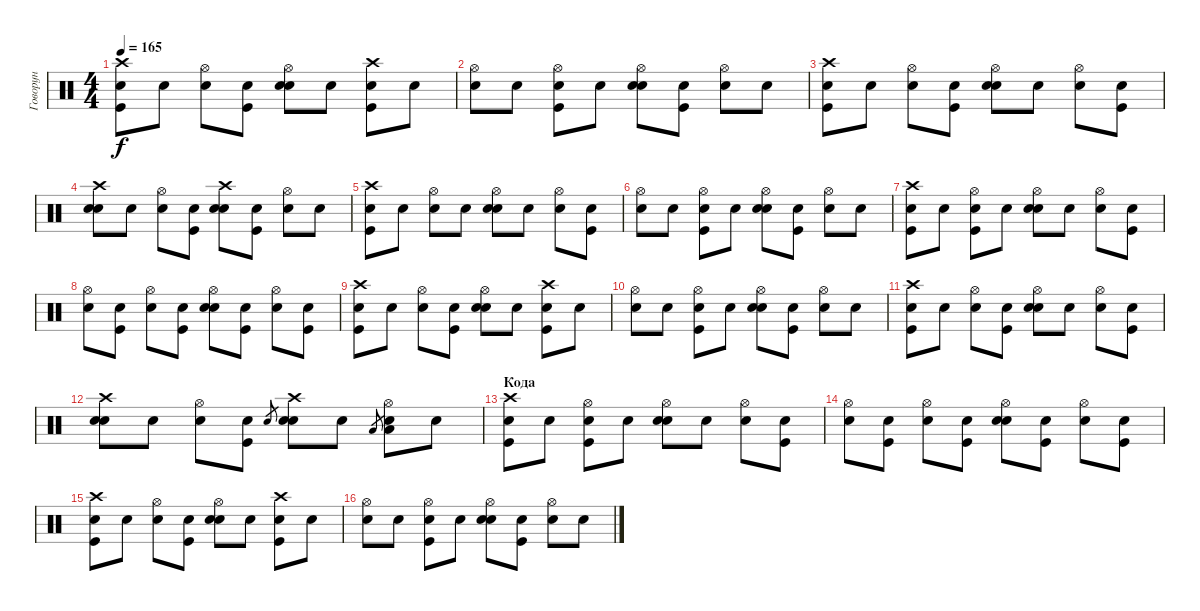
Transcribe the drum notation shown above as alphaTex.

\track ("Говорун" "Говорун") {instrument percussion}
\staff {score}
\articulation defaults
\ts (4 4)
\tempo 165
\clef neutral
\ks c
("Crash high (hit)" "Kick (hit)" "Snare (hit)"{x}).8{dy f} "Snare (hit)"{x}.8 ("Hi-Hat (open)" "Snare (hit)"{x}).8 ("Kick (hit)" "Snare (hit)"{x}).8 ("Hi-Hat (open)" "Snare (hit) 2" "Snare (hit)"{x}).8 "Snare (hit)"{x}.8 ("Crash high (hit)" "Kick (hit)" "Snare (hit)"{x}).8 "Snare (hit)"{x}.8 |
("Hi-Hat (open)" "Snare (hit)"{x}).8 "Snare (hit)"{x}.8 ("Hi-Hat (open)" "Kick (hit)" "Snare (hit)"{x}).8 "Snare (hit)"{x}.8 ("Hi-Hat (open)" "Snare (hit) 2" "Snare (hit)"{x}).8 ("Kick (hit)" "Snare (hit)"{x}).8 ("Hi-Hat (open)" "Snare (hit)"{x}).8 "Snare (hit)"{x}.8 |
("Crash high (hit)" "Kick (hit)" "Snare (hit)"{x}).8 "Snare (hit)"{x}.8 ("Hi-Hat (open)" "Snare (hit)"{x}).8 ("Kick (hit)" "Snare (hit)"{x}).8 ("Hi-Hat (open)" "Snare (hit) 2" "Snare (hit)"{x}).8 "Snare (hit)"{x}.8 ("Hi-Hat (open)" "Snare (hit)"{x}).8 ("Kick (hit)" "Snare (hit)"{x}).8 |
("Crash high (hit)" "Snare (hit) 2" "Snare (hit)"{x}).8 "Snare (hit)"{x}.8 ("Hi-Hat (open)" "Snare (hit)"{x}).8 ("Kick (hit)" "Snare (hit)"{x}).8 ("Crash high (hit)" "Snare (hit) 2" "Snare (hit)"{x}).8 ("Kick (hit)" "Snare (hit)"{x}).8 ("Hi-Hat (open)" "Snare (hit)"{x}).8 "Snare (hit)"{x}.8 |
("Crash high (hit)" "Kick (hit)" "Snare (hit)"{x}).8 "Snare (hit)"{x}.8 ("Hi-Hat (open)" "Snare (hit)"{x}).8 "Snare (hit)"{x}.8 ("Hi-Hat (open)" "Snare (hit) 2" "Snare (hit)"{x}).8 "Snare (hit)"{x}.8 ("Hi-Hat (open)" "Snare (hit)"{x}).8 ("Kick (hit)" "Snare (hit)"{x}).8 |
("Hi-Hat (open)" "Snare (hit)"{x}).8 "Snare (hit)"{x}.8 ("Hi-Hat (open)" "Kick (hit)" "Snare (hit)"{x}).8 "Snare (hit)"{x}.8 ("Hi-Hat (open)" "Snare (hit) 2" "Snare (hit)"{x}).8 ("Kick (hit)" "Snare (hit)"{x}).8 ("Hi-Hat (open)" "Snare (hit)"{x}).8 "Snare (hit)"{x}.8 |
("Crash high (hit)" "Kick (hit)" "Snare (hit)"{x}).8 "Snare (hit)"{x}.8 ("Hi-Hat (open)" "Kick (hit)" "Snare (hit)"{x}).8 "Snare (hit)"{x}.8 ("Hi-Hat (open)" "Snare (hit) 2" "Snare (hit)"{x}).8 "Snare (hit)"{x}.8 ("Hi-Hat (open)" "Snare (hit)"{x}).8 ("Kick (hit)" "Snare (hit)"{x}).8 |
("Hi-Hat (open)" "Snare (hit)"{x}).8 ("Kick (hit)" "Snare (hit)"{x}).8 ("Hi-Hat (open)" "Snare (hit)"{x}).8 ("Kick (hit)" "Snare (hit)"{x}).8 ("Hi-Hat (open)" "Snare (hit) 2" "Snare (hit)"{x}).8 ("Kick (hit)" "Snare (hit)"{x}).8 ("Hi-Hat (open)" "Snare (hit)"{x}).8 ("Kick (hit)" "Snare (hit)"{x}).8 |
("Crash high (hit)" "Kick (hit)" "Snare (hit)"{x}).8 "Snare (hit)"{x}.8 ("Hi-Hat (open)" "Snare (hit)"{x}).8 ("Kick (hit)" "Snare (hit)"{x}).8 ("Hi-Hat (open)" "Snare (hit) 2" "Snare (hit)"{x}).8 "Snare (hit)"{x}.8 ("Crash high (hit)" "Kick (hit)" "Snare (hit)"{x}).8 "Snare (hit)"{x}.8 |
("Hi-Hat (open)" "Snare (hit)"{x}).8 "Snare (hit)"{x}.8 ("Hi-Hat (open)" "Kick (hit)" "Snare (hit)"{x}).8 "Snare (hit)"{x}.8 ("Hi-Hat (open)" "Snare (hit) 2" "Snare (hit)"{x}).8 ("Kick (hit)" "Snare (hit)"{x}).8 ("Hi-Hat (open)" "Snare (hit)"{x}).8 "Snare (hit)"{x}.8 |
("Crash high (hit)" "Kick (hit)" "Snare (hit)"{x}).8 "Snare (hit)"{x}.8 ("Hi-Hat (open)" "Snare (hit)"{x}).8 ("Kick (hit)" "Snare (hit)"{x}).8 ("Hi-Hat (open)" "Snare (hit) 2" "Snare (hit)"{x}).8 "Snare (hit)"{x}.8 ("Hi-Hat (open)" "Snare (hit)"{x}).8 ("Kick (hit)" "Snare (hit)"{x}).8 |
("Crash high (hit)" "Snare (hit) 2" "Snare (hit)"{x}).8 "Snare (hit)"{x}.8 ("Hi-Hat (open)" "Snare (hit)"{x}).8 ("Kick (hit)" "Snare (hit)"{x}).8 "Snare (hit) 2".8{gr} ("Crash high (hit)" "Snare (hit) 2" "Snare (hit)"{x}).8 "Snare (hit)"{x}.8 "Low Tom (hit)".8{gr} ("Hi-Hat (open)" "Low Tom (hit)" "Snare (hit)"{x}).8 "Snare (hit)"{x}.8 |
\section ("" "Кода")
("Crash high (hit)" "Kick (hit)" "Snare (hit)"{x}).8 "Snare (hit)"{x}.8 ("Hi-Hat (open)" "Kick (hit)" "Snare (hit)"{x}).8 "Snare (hit)"{x}.8 ("Hi-Hat (open)" "Snare (hit) 2" "Snare (hit)"{x}).8 "Snare (hit)"{x}.8 ("Hi-Hat (open)" "Snare (hit)"{x}).8 ("Kick (hit)" "Snare (hit)"{x}).8 |
("Hi-Hat (open)" "Snare (hit)"{x}).8 ("Kick (hit)" "Snare (hit)"{x}).8 ("Hi-Hat (open)" "Snare (hit)"{x}).8 ("Kick (hit)" "Snare (hit)"{x}).8 ("Hi-Hat (open)" "Snare (hit) 2" "Snare (hit)"{x}).8 ("Kick (hit)" "Snare (hit)"{x}).8 ("Hi-Hat (open)" "Snare (hit)"{x}).8 ("Kick (hit)" "Snare (hit)"{x}).8 |
("Crash high (hit)" "Kick (hit)" "Snare (hit)"{x}).8 "Snare (hit)"{x}.8 ("Hi-Hat (open)" "Snare (hit)"{x}).8 ("Kick (hit)" "Snare (hit)"{x}).8 ("Hi-Hat (open)" "Snare (hit) 2" "Snare (hit)"{x}).8 "Snare (hit)"{x}.8 ("Crash high (hit)" "Kick (hit)" "Snare (hit)"{x}).8 "Snare (hit)"{x}.8 |
("Hi-Hat (open)" "Snare (hit)"{x}).8 "Snare (hit)"{x}.8 ("Hi-Hat (open)" "Kick (hit)" "Snare (hit)"{x}).8 "Snare (hit)"{x}.8 ("Hi-Hat (open)" "Snare (hit) 2" "Snare (hit)"{x}).8 ("Kick (hit)" "Snare (hit)"{x}).8 ("Hi-Hat (open)" "Snare (hit)"{x}).8 "Snare (hit)"{x}.8
